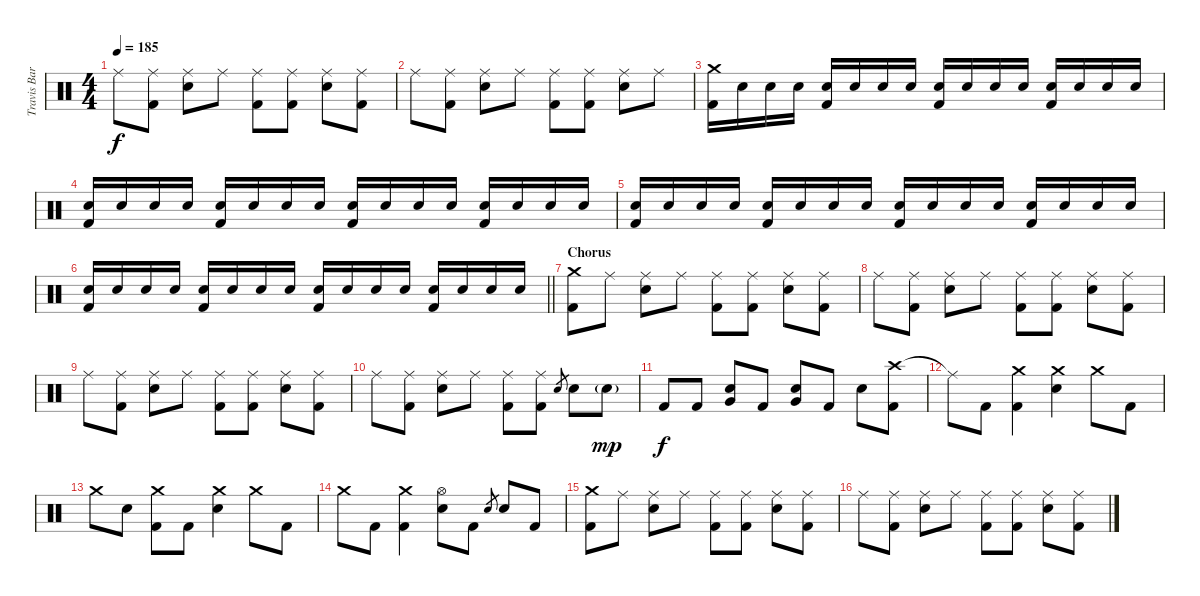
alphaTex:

\track ("Travis Barker - Drums" "Travis Bar") {instrument percussion}
\staff {score}
\articulation defaults
\ts (4 4)
\tempo 185
\clef neutral
\ks c "Ride (middle)".8{dy f}
("Ride (middle)" "Kick (hit) 2").8 ("Ride (middle)" "Electric Snare (hit)").8 "Ride (middle)".8 ("Ride (middle)" "Kick (hit) 2").8 ("Ride (middle)" "Kick (hit) 2").8 ("Ride (middle)" "Electric Snare (hit)").8 ("Ride (middle)" "Kick (hit) 2").8 |
"Ride (middle)".8 ("Ride (middle)" "Kick (hit) 2").8 ("Ride (middle)" "Electric Snare (hit)").8 "Ride (middle)".8 ("Ride (middle)" "Kick (hit) 2").8 ("Ride (middle)" "Kick (hit) 2").8 ("Ride (middle)" "Electric Snare (hit)").8 "Ride (middle)".8 |
("Crash medium (hit)" "Kick (hit) 2").16{volume 8} "Electric Snare (hit)".16 "Electric Snare (hit)".16 "Electric Snare (hit)".16 ("Electric Snare (hit)" "Kick (hit) 2").16 "Electric Snare (hit)".16 "Electric Snare (hit)".16 "Electric Snare (hit)".16 ("Electric Snare (hit)" "Kick (hit) 2").16 "Electric Snare (hit)".16 "Electric Snare (hit)".16 "Electric Snare (hit)".16 ("Electric Snare (hit)" "Kick (hit) 2").16 "Electric Snare (hit)".16 "Electric Snare (hit)".16 "Electric Snare (hit)".16 |
("Electric Snare (hit)" "Kick (hit) 2").16 "Electric Snare (hit)".16 "Electric Snare (hit)".16 "Electric Snare (hit)".16 ("Electric Snare (hit)" "Kick (hit) 2").16 "Electric Snare (hit)".16 "Electric Snare (hit)".16 "Electric Snare (hit)".16 ("Electric Snare (hit)" "Kick (hit) 2").16{volume 12} "Electric Snare (hit)".16 "Electric Snare (hit)".16 "Electric Snare (hit)".16 ("Electric Snare (hit)" "Kick (hit) 2").16 "Electric Snare (hit)".16 "Electric Snare (hit)".16 "Electric Snare (hit)".16 |
("Electric Snare (hit)" "Kick (hit) 2").16 "Electric Snare (hit)".16 "Electric Snare (hit)".16 "Electric Snare (hit)".16 ("Electric Snare (hit)" "Kick (hit) 2").16 "Electric Snare (hit)".16 "Electric Snare (hit)".16 "Electric Snare (hit)".16 ("Electric Snare (hit)" "Kick (hit) 2").16 "Electric Snare (hit)".16 "Electric Snare (hit)".16 "Electric Snare (hit)".16 ("Electric Snare (hit)" "Kick (hit) 2").16 "Electric Snare (hit)".16 "Electric Snare (hit)".16 "Electric Snare (hit)".16 |
\barLineRight lightlight
("Electric Snare (hit)" "Kick (hit) 2").16 "Electric Snare (hit)".16 "Electric Snare (hit)".16 "Electric Snare (hit)".16 ("Electric Snare (hit)" "Kick (hit) 2").16 "Electric Snare (hit)".16 "Electric Snare (hit)".16 "Electric Snare (hit)".16 ("Electric Snare (hit)" "Kick (hit) 2").16 "Electric Snare (hit)".16 "Electric Snare (hit)".16 "Electric Snare (hit)".16 ("Electric Snare (hit)" "Kick (hit) 2").16 "Electric Snare (hit)".16 "Electric Snare (hit)".16 "Electric Snare (hit)".16 |
\section ("" "Chorus")
("Crash medium (hit)" "Kick (hit) 2").8 "Ride (middle)".8 ("Ride (middle)" "Electric Snare (hit)").8 "Ride (middle)".8 ("Ride (middle)" "Kick (hit) 2").8 ("Ride (middle)" "Kick (hit) 2").8 ("Ride (middle)" "Electric Snare (hit)").8 ("Ride (middle)" "Kick (hit) 2").8 |
"Ride (middle)".8 ("Ride (middle)" "Kick (hit) 2").8 ("Ride (middle)" "Electric Snare (hit)").8 "Ride (middle)".8 ("Ride (middle)" "Kick (hit) 2").8 ("Ride (middle)" "Kick (hit) 2").8 ("Ride (middle)" "Electric Snare (hit)").8 ("Ride (middle)" "Kick (hit) 2").8 |
"Ride (middle)".8 ("Ride (middle)" "Kick (hit) 2").8 ("Ride (middle)" "Electric Snare (hit)").8 "Ride (middle)".8 ("Ride (middle)" "Kick (hit) 2").8 ("Ride (middle)" "Kick (hit) 2").8 ("Ride (middle)" "Electric Snare (hit)").8 ("Ride (middle)" "Kick (hit) 2").8 |
"Ride (middle)".8 ("Ride (middle)" "Kick (hit) 2").8 ("Ride (middle)" "Electric Snare (hit)").8 "Ride (middle)".8 ("Ride (middle)" "Kick (hit) 2").8 ("Ride (middle)" "Kick (hit) 2").8 "Electric Snare (hit)".8{gr} "Electric Snare (hit)".8 "Electric Snare (hit)"{g}.8{dy mp} |
"Kick (hit) 2".8{dy f} "Kick (hit) 2".8 ("Very Low Tom (hit)" "Electric Snare (hit)").8 "Kick (hit) 2".8 ("Very Low Tom (hit)" "Electric Snare (hit)").8 "Kick (hit) 2".8 "Electric Snare (hit)".8 ("Crash high (hit)" "Kick (hit) 2").8 |
"Ride (middle)"{t}.8 "Kick (hit) 2".8 ("Crash medium (hit)" "Kick (hit) 2").4 ("Crash medium (hit)" "Electric Snare (hit)").4 "Crash medium (hit)".8 "Kick (hit) 2".8 |
"Crash medium (hit)".8 "Electric Snare (hit)".8 ("Crash medium (hit)" "Kick (hit) 2").8 "Kick (hit) 2".8 ("Crash medium (hit)" "Electric Snare (hit)").4 "Crash medium (hit)".8 "Kick (hit) 2".8 |
"Crash medium (hit)".8 "Kick (hit) 2".8 ("Crash medium (hit)" "Kick (hit) 2").4 ("Hi-Hat (open)" "Electric Snare (hit)").8 "Kick (hit) 2".8 "Electric Snare (hit)".8{gr} "Electric Snare (hit)".8 "Kick (hit) 2".8 |
("Crash medium (hit)" "Kick (hit) 2").8 "Ride (middle)".8 ("Ride (middle)" "Electric Snare (hit)").8 "Ride (middle)".8 ("Ride (middle)" "Kick (hit) 2").8 ("Ride (middle)" "Kick (hit) 2").8 ("Ride (middle)" "Electric Snare (hit)").8 ("Ride (middle)" "Kick (hit) 2").8 |
"Ride (middle)".8 ("Ride (middle)" "Kick (hit) 2").8 ("Ride (middle)" "Electric Snare (hit)").8 "Ride (middle)".8 ("Ride (middle)" "Kick (hit) 2").8 ("Ride (middle)" "Kick (hit) 2").8 ("Ride (middle)" "Electric Snare (hit)").8 ("Ride (middle)" "Kick (hit) 2").8
